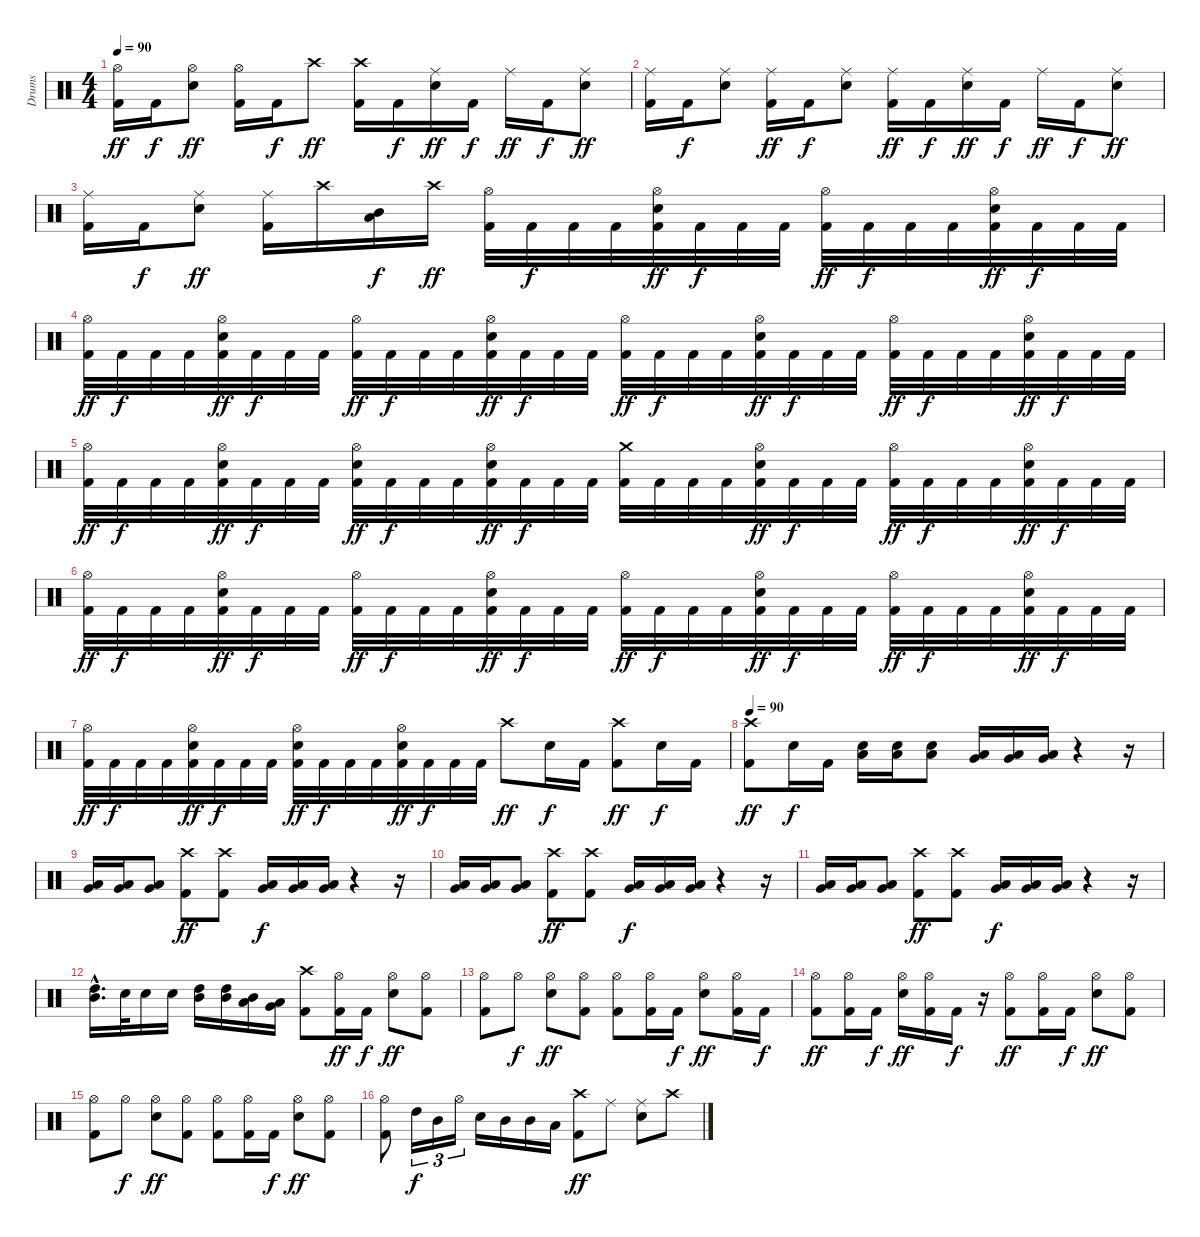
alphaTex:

\track ("Drums" "Drums") {instrument percussion}
\staff {score}
\articulation defaults
\ts (4 4)
\tempo 90
\clef neutral
\ks c
("Hi-Hat (open)" "Kick (hit) 2").16{dy ff} "Kick (hit) 2".16{dy f} ("Hi-Hat (open)" "Electric Snare (hit)").8{dy ff} ("Hi-Hat (open)" "Kick (hit) 2").16 "Kick (hit) 2".16{dy f} "Crash high (hit)".8{dy ff} ("Crash high (hit)" "Kick (hit) 2").16 "Kick (hit) 2".16{dy f} ("Ride (middle)" "Electric Snare (hit)").16{dy ff} "Kick (hit) 2".16{dy f} "Ride (middle)".16{dy ff} "Kick (hit) 2".16{dy f} ("Ride (middle)" "Electric Snare (hit)").8{dy ff} |
("Ride (middle)" "Kick (hit) 2").16 "Kick (hit) 2".16{dy f} ("Ride (middle)" "Electric Snare (hit)").8 ("Ride (middle)" "Kick (hit) 2").16{dy ff} "Kick (hit) 2".16{dy f} ("Ride (middle)" "Electric Snare (hit)").8 ("Ride (middle)" "Kick (hit) 2").16{dy ff} "Kick (hit) 2".16{dy f} ("Ride (middle)" "Electric Snare (hit)").16{dy ff} "Kick (hit) 2".16{dy f} "Ride (middle)".16{dy ff} "Kick (hit) 2".16{dy f} ("Ride (middle)" "Electric Snare (hit)").8{dy ff} |
("Ride (middle)" "Kick (hit) 2").16 "Kick (hit) 2".16{dy f} ("Ride (middle)" "Electric Snare (hit)").8{dy ff} ("Ride (middle)" "Kick (hit) 2").16 "Crash high (hit)".16 ("Mid Tom (hit)" "Low Tom (hit)").16{dy f} "Crash high (hit)".16{dy ff} ("Hi-Hat (open)" "Kick (hit) 2").32 "Kick (hit) 2".32{dy f} "Kick (hit) 2".32 "Kick (hit) 2".32 ("Hi-Hat (open)" "Electric Snare (hit)" "Kick (hit) 2").32{dy ff} "Kick (hit) 2".32{dy f} "Kick (hit) 2".32 "Kick (hit) 2".32 ("Hi-Hat (open)" "Kick (hit) 2").32{dy ff} "Kick (hit) 2".32{dy f} "Kick (hit) 2".32 "Kick (hit) 2".32 ("Hi-Hat (open)" "Electric Snare (hit)" "Kick (hit) 2").32{dy ff} "Kick (hit) 2".32{dy f} "Kick (hit) 2".32 "Kick (hit) 2".32 |
("Hi-Hat (open)" "Kick (hit) 2").32{dy ff} "Kick (hit) 2".32{dy f} "Kick (hit) 2".32 "Kick (hit) 2".32 ("Hi-Hat (open)" "Electric Snare (hit)" "Kick (hit) 2").32{dy ff} "Kick (hit) 2".32{dy f} "Kick (hit) 2".32 "Kick (hit) 2".32 ("Hi-Hat (open)" "Kick (hit) 2").32{dy ff} "Kick (hit) 2".32{dy f} "Kick (hit) 2".32 "Kick (hit) 2".32 ("Hi-Hat (open)" "Electric Snare (hit)" "Kick (hit) 2").32{dy ff} "Kick (hit) 2".32{dy f} "Kick (hit) 2".32 "Kick (hit) 2".32 ("Hi-Hat (open)" "Kick (hit) 2").32{dy ff} "Kick (hit) 2".32{dy f} "Kick (hit) 2".32 "Kick (hit) 2".32 ("Hi-Hat (open)" "Electric Snare (hit)" "Kick (hit) 2").32{dy ff} "Kick (hit) 2".32{dy f} "Kick (hit) 2".32 "Kick (hit) 2".32 ("Hi-Hat (open)" "Kick (hit) 2").32{dy ff} "Kick (hit) 2".32{dy f} "Kick (hit) 2".32 "Kick (hit) 2".32 ("Hi-Hat (open)" "Electric Snare (hit)" "Kick (hit) 2").32{dy ff} "Kick (hit) 2".32{dy f} "Kick (hit) 2".32 "Kick (hit) 2".32 |
("Hi-Hat (open)" "Kick (hit) 2").32{dy ff} "Kick (hit) 2".32{dy f} "Kick (hit) 2".32 "Kick (hit) 2".32 ("Hi-Hat (open)" "Electric Snare (hit)" "Kick (hit) 2").32{dy ff} "Kick (hit) 2".32{dy f} "Kick (hit) 2".32 "Kick (hit) 2".32 ("Hi-Hat (open)" "Electric Snare (hit)" "Kick (hit) 2").32{dy ff} "Kick (hit) 2".32{dy f} "Kick (hit) 2".32 "Kick (hit) 2".32 ("Hi-Hat (open)" "Electric Snare (hit)" "Kick (hit) 2").32{dy ff} "Kick (hit) 2".32{dy f} "Kick (hit) 2".32 "Kick (hit) 2".32 ("Crash medium (hit)" "Kick (hit) 2").32 "Kick (hit) 2".32 "Kick (hit) 2".32 "Kick (hit) 2".32 ("Hi-Hat (open)" "Electric Snare (hit)" "Kick (hit) 2").32{dy ff} "Kick (hit) 2".32{dy f} "Kick (hit) 2".32 "Kick (hit) 2".32 ("Hi-Hat (open)" "Kick (hit) 2").32{dy ff} "Kick (hit) 2".32{dy f} "Kick (hit) 2".32 "Kick (hit) 2".32 ("Hi-Hat (open)" "Electric Snare (hit)" "Kick (hit) 2").32{dy ff} "Kick (hit) 2".32{dy f} "Kick (hit) 2".32 "Kick (hit) 2".32 |
("Hi-Hat (open)" "Kick (hit) 2").32{dy ff} "Kick (hit) 2".32{dy f} "Kick (hit) 2".32 "Kick (hit) 2".32 ("Hi-Hat (open)" "Electric Snare (hit)" "Kick (hit) 2").32{dy ff} "Kick (hit) 2".32{dy f} "Kick (hit) 2".32 "Kick (hit) 2".32 ("Hi-Hat (open)" "Kick (hit) 2").32{dy ff} "Kick (hit) 2".32{dy f} "Kick (hit) 2".32 "Kick (hit) 2".32 ("Hi-Hat (open)" "Electric Snare (hit)" "Kick (hit) 2").32{dy ff} "Kick (hit) 2".32{dy f} "Kick (hit) 2".32 "Kick (hit) 2".32 ("Hi-Hat (open)" "Kick (hit) 2").32{dy ff} "Kick (hit) 2".32{dy f} "Kick (hit) 2".32 "Kick (hit) 2".32 ("Hi-Hat (open)" "Electric Snare (hit)" "Kick (hit) 2").32{dy ff} "Kick (hit) 2".32{dy f} "Kick (hit) 2".32 "Kick (hit) 2".32 ("Hi-Hat (open)" "Kick (hit) 2").32{dy ff} "Kick (hit) 2".32{dy f} "Kick (hit) 2".32 "Kick (hit) 2".32 ("Hi-Hat (open)" "Electric Snare (hit)" "Kick (hit) 2").32{dy ff} "Kick (hit) 2".32{dy f} "Kick (hit) 2".32 "Kick (hit) 2".32 |
("Hi-Hat (open)" "Kick (hit) 2").32{dy ff} "Kick (hit) 2".32{dy f} "Kick (hit) 2".32 "Kick (hit) 2".32 ("Hi-Hat (open)" "Electric Snare (hit)" "Kick (hit) 2").32{dy ff} "Kick (hit) 2".32{dy f} "Kick (hit) 2".32 "Kick (hit) 2".32 ("Hi-Hat (open)" "Electric Snare (hit)" "Kick (hit) 2").32{dy ff} "Kick (hit) 2".32{dy f} "Kick (hit) 2".32 "Kick (hit) 2".32 ("Hi-Hat (open)" "Electric Snare (hit)" "Kick (hit) 2").32{dy ff} "Kick (hit) 2".32{dy f} "Kick (hit) 2".32 "Kick (hit) 2".32 "Crash high (hit)".8{dy ff} "Electric Snare (hit)".16{dy f} "Kick (hit) 2".16 ("Crash high (hit)" "Kick (hit) 2").8{dy ff} "Electric Snare (hit)".16{dy f} "Kick (hit) 2".16 |
\tempo 90
("Crash high (hit)" "Kick (hit) 2").8{dy ff} "Electric Snare (hit)".16{dy f} "Kick (hit) 2".16 ("Low Floor Tom (hit)" "Electric Snare (hit)").16 ("Low Floor Tom (hit)" "Electric Snare (hit)").16 ("Low Floor Tom (hit)" "Electric Snare (hit)").8 ("Very Low Tom (hit)" "Low Floor Tom (hit)").16 ("Very Low Tom (hit)" "Low Floor Tom (hit)").16 ("Very Low Tom (hit)" "Low Floor Tom (hit)").16 r.4 r.16 |
("Very Low Tom (hit)" "Low Floor Tom (hit)").16 ("Very Low Tom (hit)" "Low Floor Tom (hit)").16 ("Very Low Tom (hit)" "Low Floor Tom (hit)").8 ("Crash high (hit)" "Kick (hit) 2").8{dy ff} ("Crash high (hit)" "Kick (hit) 2").8 ("Very Low Tom (hit)" "Low Floor Tom (hit)").16{dy f} ("Very Low Tom (hit)" "Low Floor Tom (hit)").16 ("Very Low Tom (hit)" "Low Floor Tom (hit)").16 r.4 r.16 |
("Very Low Tom (hit)" "Low Floor Tom (hit)").16 ("Very Low Tom (hit)" "Low Floor Tom (hit)").16 ("Very Low Tom (hit)" "Low Floor Tom (hit)").8 ("Crash high (hit)" "Kick (hit) 2").8{dy ff} ("Crash high (hit)" "Kick (hit) 2").8 ("Very Low Tom (hit)" "Low Floor Tom (hit)").16{dy f} ("Very Low Tom (hit)" "Low Floor Tom (hit)").16 ("Very Low Tom (hit)" "Low Floor Tom (hit)").16 r.4 r.16 |
("Very Low Tom (hit)" "Low Floor Tom (hit)").16 ("Very Low Tom (hit)" "Low Floor Tom (hit)").16 ("Very Low Tom (hit)" "Low Floor Tom (hit)").8 ("Crash high (hit)" "Kick (hit) 2").8{dy ff} ("Crash high (hit)" "Kick (hit) 2").8 ("Very Low Tom (hit)" "Low Floor Tom (hit)").16{dy f} ("Very Low Tom (hit)" "Low Floor Tom (hit)").16 ("Very Low Tom (hit)" "Low Floor Tom (hit)").16 r.4 r.16 |
("High Tom (hit)"{hac} "Mid Tom (hit)"{hac}).16{d} "Electric Snare (hit)".32 "Electric Snare (hit)".16 "Electric Snare (hit)".16 ("High Tom (hit)" "Mid Tom (hit)").16 ("High Tom (hit)" "Mid Tom (hit)").16 ("Mid Tom (hit)" "Low Tom (hit)").16 ("Low Tom (hit)" "Very Low Tom (hit)").16 ("Crash high (hit)" "Kick (hit) 2").8 ("Hi-Hat (open)" "Kick (hit) 2").16{dy ff} "Kick (hit) 2".16{dy f} ("Hi-Hat (open)" "Electric Snare (hit)").8{dy ff} ("Hi-Hat (open)" "Kick (hit) 2").8 |
("Hi-Hat (open)" "Kick (hit) 2").8 "Hi-Hat (open)".8{dy f} ("Hi-Hat (open)" "Electric Snare (hit)").8{dy ff} ("Hi-Hat (open)" "Kick (hit) 2").8 ("Hi-Hat (open)" "Kick (hit) 2").8 ("Hi-Hat (open)" "Kick (hit) 2").16 "Kick (hit) 2".16{dy f} ("Hi-Hat (open)" "Electric Snare (hit)").8{dy ff} ("Hi-Hat (open)" "Kick (hit) 2").16 "Kick (hit) 2".16{dy f} |
("Hi-Hat (open)" "Kick (hit) 2").8{dy ff} ("Hi-Hat (open)" "Kick (hit) 2").16 "Kick (hit) 2".16{dy f} ("Hi-Hat (open)" "Electric Snare (hit)").16{dy ff} ("Hi-Hat (open)" "Kick (hit) 2").16 "Kick (hit) 2".16{dy f} r.16 ("Hi-Hat (open)" "Kick (hit) 2").8{dy ff} ("Hi-Hat (open)" "Kick (hit) 2").16 "Kick (hit) 2".16{dy f} ("Hi-Hat (open)" "Electric Snare (hit)").8{dy ff} ("Hi-Hat (open)" "Kick (hit) 2").8 |
("Hi-Hat (open)" "Kick (hit) 2").8 "Hi-Hat (open)".8{dy f} ("Hi-Hat (open)" "Electric Snare (hit)").8{dy ff} ("Hi-Hat (open)" "Kick (hit) 2").8 ("Hi-Hat (open)" "Kick (hit) 2").8 ("Hi-Hat (open)" "Kick (hit) 2").16 "Kick (hit) 2".16{dy f} ("Hi-Hat (open)" "Electric Snare (hit)").8{dy ff} ("Hi-Hat (open)" "Kick (hit) 2").8 |
("Hi-Hat (open)" "Kick (hit) 2").8 "High Tom (hit)".16{tu (3 2) dy f} "Mid Tom (hit)".16{tu (3 2)} "Hi-Hat (open)".16{tu (3 2)} "Electric Snare (hit)".16 "Mid Tom (hit)".16 "Mid Tom (hit)".16 "Low Tom (hit)".16 ("Crash high (hit)" "Kick (hit) 2").8{dy ff} "Ride (middle)".8 ("Ride (middle)" "Electric Snare (hit)").8 "Crash high (hit)".8
